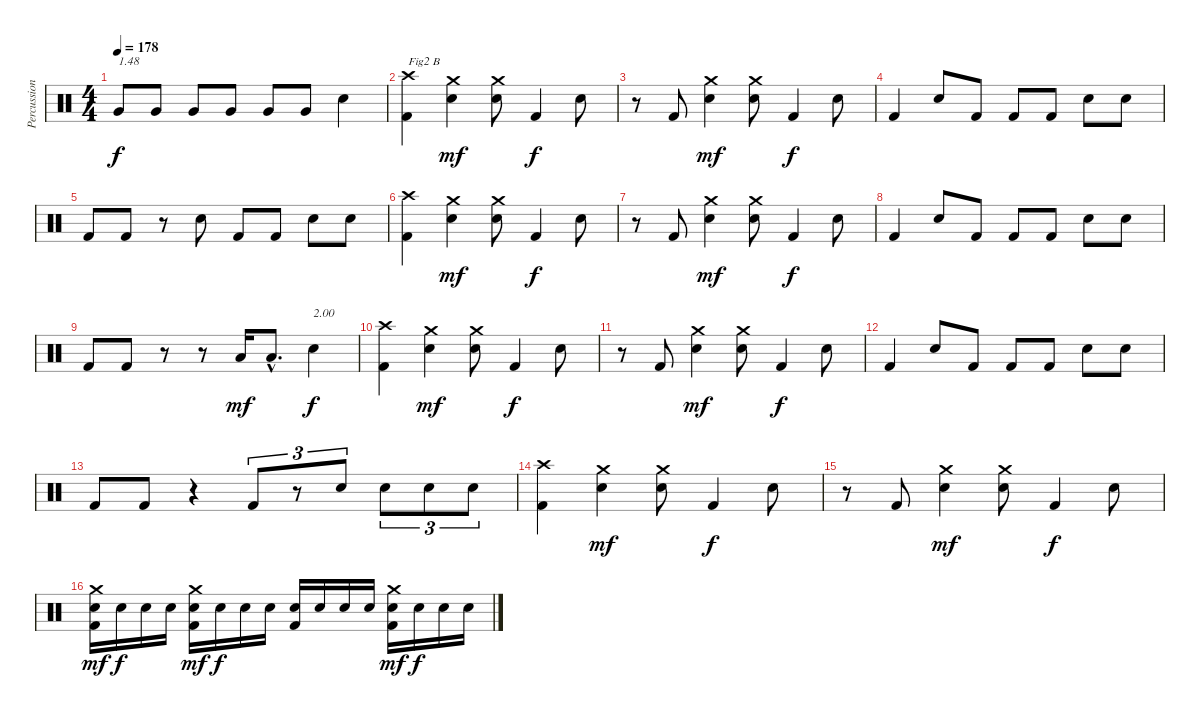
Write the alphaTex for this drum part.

\track ("Percussions" "Percussion") {instrument percussion}
\staff {score}
\articulation defaults
\ts (4 4)
\tempo 178
\clef neutral
\ks c "Very Low Tom (hit)".8{txt "1.48" dy f} "Very Low Tom (hit)".8 "Very Low Tom (hit)".8 "Very Low Tom (hit)".8 "Very Low Tom (hit)".8 "Very Low Tom (hit)".8 "Electric Snare (hit)".4
|
("Kick (hit) 2" "Crash high (hit)").4{txt "Fig2 B"} ("Electric Snare (hit)" "Crash medium (hit)").4{dy mf} ("Electric Snare (hit)" "Crash medium (hit)").8 "Kick (hit) 2".4{dy f} "Electric Snare (hit)".8 |
r.8 "Kick (hit) 2".8 ("Electric Snare (hit)" "Crash medium (hit)").4{dy mf} ("Electric Snare (hit)" "Crash medium (hit)").8 "Kick (hit) 2".4{dy f} "Electric Snare (hit)".8 |
"Kick (hit) 2".4 "Electric Snare (hit)".8 "Kick (hit) 2".8 "Kick (hit) 2".8 "Kick (hit) 2".8 "Electric Snare (hit)".8 "Electric Snare (hit)".8 |
"Kick (hit) 2".8 "Kick (hit) 2".8 r.8 "Electric Snare (hit)".8 "Kick (hit) 2".8 "Kick (hit) 2".8 "Electric Snare (hit)".8 "Electric Snare (hit)".8 |
("Kick (hit) 2" "Crash high (hit)").4 ("Electric Snare (hit)" "Crash medium (hit)").4{dy mf} ("Electric Snare (hit)" "Crash medium (hit)").8 "Kick (hit) 2".4{dy f} "Electric Snare (hit)".8 |
r.8 "Kick (hit) 2".8 ("Electric Snare (hit)" "Crash medium (hit)").4{dy mf} ("Electric Snare (hit)" "Crash medium (hit)").8 "Kick (hit) 2".4{dy f} "Electric Snare (hit)".8 |
"Kick (hit) 2".4 "Electric Snare (hit)".8 "Kick (hit) 2".8 "Kick (hit) 2".8 "Kick (hit) 2".8 "Electric Snare (hit)".8 "Electric Snare (hit)".8 |
"Kick (hit) 2".8 "Kick (hit) 2".8 r.8 r.8 "Low Floor Tom (hit)".16{dy mf} "Low Floor Tom (hit)"{hac}.8{d} "Electric Snare (hit)".4{txt "2.00" dy f} |
("Kick (hit) 2" "Crash high (hit)").4 ("Electric Snare (hit)" "Crash medium (hit)").4{dy mf} ("Electric Snare (hit)" "Crash medium (hit)").8 "Kick (hit) 2".4{dy f} "Electric Snare (hit)".8 |
r.8 "Kick (hit) 2".8 ("Electric Snare (hit)" "Crash medium (hit)").4{dy mf} ("Electric Snare (hit)" "Crash medium (hit)").8 "Kick (hit) 2".4{dy f} "Electric Snare (hit)".8 |
"Kick (hit) 2".4 "Electric Snare (hit)".8 "Kick (hit) 2".8 "Kick (hit) 2".8 "Kick (hit) 2".8 "Electric Snare (hit)".8 "Electric Snare (hit)".8 |
"Kick (hit) 2".8 "Kick (hit) 2".8 r.4 "Kick (hit) 2".8{tu (3 2)} r.8{tu (3 2)} "Electric Snare (hit)".8{tu (3 2)} "Electric Snare (hit)".8{tu (3 2)} "Electric Snare (hit)".8{tu (3 2)} "Electric Snare (hit)".8{tu (3 2)} |
("Kick (hit) 2" "Crash high (hit)").4 ("Electric Snare (hit)" "Crash medium (hit)").4{dy mf} ("Electric Snare (hit)" "Crash medium (hit)").8 "Kick (hit) 2".4{dy f} "Electric Snare (hit)".8 |
r.8 "Kick (hit) 2".8 ("Electric Snare (hit)" "Crash medium (hit)").4{dy mf} ("Electric Snare (hit)" "Crash medium (hit)").8 "Kick (hit) 2".4{dy f} "Electric Snare (hit)".8 |
("Kick (hit) 2" "Electric Snare (hit)" "Crash medium (hit)").16{dy mf} "Electric Snare (hit)".16{dy f} "Electric Snare (hit)".16 "Electric Snare (hit)".16 ("Kick (hit) 2" "Electric Snare (hit)" "Crash medium (hit)").16{dy mf} "Electric Snare (hit)".16{dy f} "Electric Snare (hit)".16 "Electric Snare (hit)".16 ("Kick (hit) 2" "Electric Snare (hit)").16 "Electric Snare (hit)".16 "Electric Snare (hit)".16 "Electric Snare (hit)".16 ("Kick (hit) 2" "Electric Snare (hit)" "Crash medium (hit)").16{dy mf} "Electric Snare (hit)".16{dy f} "Electric Snare (hit)".16 "Electric Snare (hit)".16
